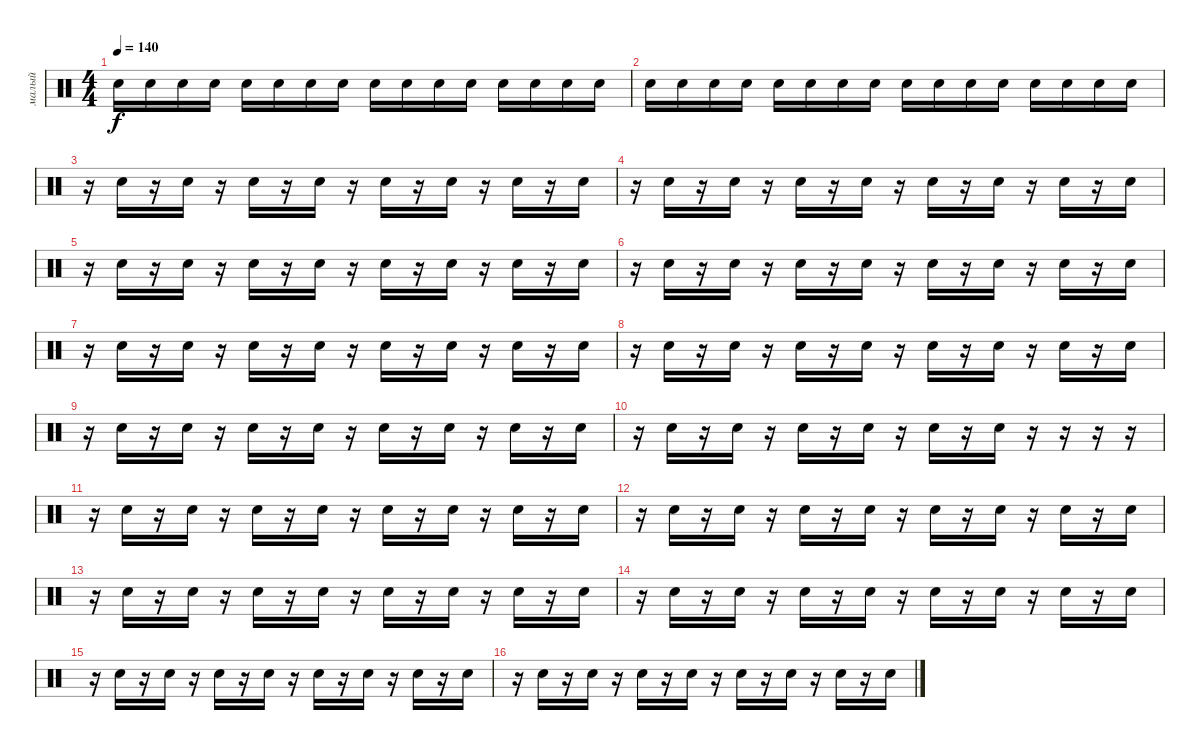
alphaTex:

\track ("малый" "малый") {mute instrument percussion}
\staff {score}
\articulation defaults
\ts (4 4)
\tempo 140
\clef neutral
\ks c "Electric Snare (hit)".16{dy f} "Electric Snare (hit)".16 "Electric Snare (hit)".16 "Electric Snare (hit)".16 "Electric Snare (hit)".16 "Electric Snare (hit)".16 "Electric Snare (hit)".16 "Electric Snare (hit)".16 "Electric Snare (hit)".16 "Electric Snare (hit)".16 "Electric Snare (hit)".16 "Electric Snare (hit)".16 "Electric Snare (hit)".16 "Electric Snare (hit)".16 "Electric Snare (hit)".16 "Electric Snare (hit)".16
|
"Electric Snare (hit)".16 "Electric Snare (hit)".16 "Electric Snare (hit)".16 "Electric Snare (hit)".16 "Electric Snare (hit)".16 "Electric Snare (hit)".16 "Electric Snare (hit)".16 "Electric Snare (hit)".16 "Electric Snare (hit)".16 "Electric Snare (hit)".16 "Electric Snare (hit)".16 "Electric Snare (hit)".16 "Electric Snare (hit)".16 "Electric Snare (hit)".16 "Electric Snare (hit)".16 "Electric Snare (hit)".16 |
r.16 "Electric Snare (hit)".16 r.16 "Electric Snare (hit)".16 r.16 "Electric Snare (hit)".16 r.16 "Electric Snare (hit)".16 r.16 "Electric Snare (hit)".16 r.16 "Electric Snare (hit)".16 r.16 "Electric Snare (hit)".16 r.16 "Electric Snare (hit)".16 |
r.16 "Electric Snare (hit)".16 r.16 "Electric Snare (hit)".16 r.16 "Electric Snare (hit)".16 r.16 "Electric Snare (hit)".16 r.16 "Electric Snare (hit)".16 r.16 "Electric Snare (hit)".16 r.16 "Electric Snare (hit)".16 r.16 "Electric Snare (hit)".16 |
r.16 "Electric Snare (hit)".16 r.16 "Electric Snare (hit)".16 r.16 "Electric Snare (hit)".16 r.16 "Electric Snare (hit)".16 r.16 "Electric Snare (hit)".16 r.16 "Electric Snare (hit)".16 r.16 "Electric Snare (hit)".16 r.16 "Electric Snare (hit)".16 |
r.16 "Electric Snare (hit)".16 r.16 "Electric Snare (hit)".16 r.16 "Electric Snare (hit)".16 r.16 "Electric Snare (hit)".16 r.16 "Electric Snare (hit)".16 r.16 "Electric Snare (hit)".16 r.16 "Electric Snare (hit)".16 r.16 "Electric Snare (hit)".16 |
r.16 "Electric Snare (hit)".16 r.16 "Electric Snare (hit)".16 r.16 "Electric Snare (hit)".16 r.16 "Electric Snare (hit)".16 r.16 "Electric Snare (hit)".16 r.16 "Electric Snare (hit)".16 r.16 "Electric Snare (hit)".16 r.16 "Electric Snare (hit)".16 |
r.16 "Electric Snare (hit)".16 r.16 "Electric Snare (hit)".16 r.16 "Electric Snare (hit)".16 r.16 "Electric Snare (hit)".16 r.16 "Electric Snare (hit)".16 r.16 "Electric Snare (hit)".16 r.16 "Electric Snare (hit)".16 r.16 "Electric Snare (hit)".16 |
r.16 "Electric Snare (hit)".16 r.16 "Electric Snare (hit)".16 r.16 "Electric Snare (hit)".16 r.16 "Electric Snare (hit)".16 r.16 "Electric Snare (hit)".16 r.16 "Electric Snare (hit)".16 r.16 "Electric Snare (hit)".16 r.16 "Electric Snare (hit)".16 |
r.16 "Electric Snare (hit)".16 r.16 "Electric Snare (hit)".16 r.16 "Electric Snare (hit)".16 r.16 "Electric Snare (hit)".16 r.16 "Electric Snare (hit)".16 r.16 "Electric Snare (hit)".16 r.16 r.16 r.16 r.16 |
r.16 "Electric Snare (hit)".16 r.16 "Electric Snare (hit)".16 r.16 "Electric Snare (hit)".16 r.16 "Electric Snare (hit)".16 r.16 "Electric Snare (hit)".16 r.16 "Electric Snare (hit)".16 r.16 "Electric Snare (hit)".16 r.16 "Electric Snare (hit)".16 |
r.16 "Electric Snare (hit)".16 r.16 "Electric Snare (hit)".16 r.16 "Electric Snare (hit)".16 r.16 "Electric Snare (hit)".16 r.16 "Electric Snare (hit)".16 r.16 "Electric Snare (hit)".16 r.16 "Electric Snare (hit)".16 r.16 "Electric Snare (hit)".16 |
r.16 "Electric Snare (hit)".16 r.16 "Electric Snare (hit)".16 r.16 "Electric Snare (hit)".16 r.16 "Electric Snare (hit)".16 r.16 "Electric Snare (hit)".16 r.16 "Electric Snare (hit)".16 r.16 "Electric Snare (hit)".16 r.16 "Electric Snare (hit)".16 |
r.16 "Electric Snare (hit)".16 r.16 "Electric Snare (hit)".16 r.16 "Electric Snare (hit)".16 r.16 "Electric Snare (hit)".16 r.16 "Electric Snare (hit)".16 r.16 "Electric Snare (hit)".16 r.16 "Electric Snare (hit)".16 r.16 "Electric Snare (hit)".16 |
r.16 "Electric Snare (hit)".16 r.16 "Electric Snare (hit)".16 r.16 "Electric Snare (hit)".16 r.16 "Electric Snare (hit)".16 r.16 "Electric Snare (hit)".16 r.16 "Electric Snare (hit)".16 r.16 "Electric Snare (hit)".16 r.16 "Electric Snare (hit)".16 |
r.16 "Electric Snare (hit)".16 r.16 "Electric Snare (hit)".16 r.16 "Electric Snare (hit)".16 r.16 "Electric Snare (hit)".16 r.16 "Electric Snare (hit)".16 r.16 "Electric Snare (hit)".16 r.16 "Electric Snare (hit)".16 r.16 "Electric Snare (hit)".16
